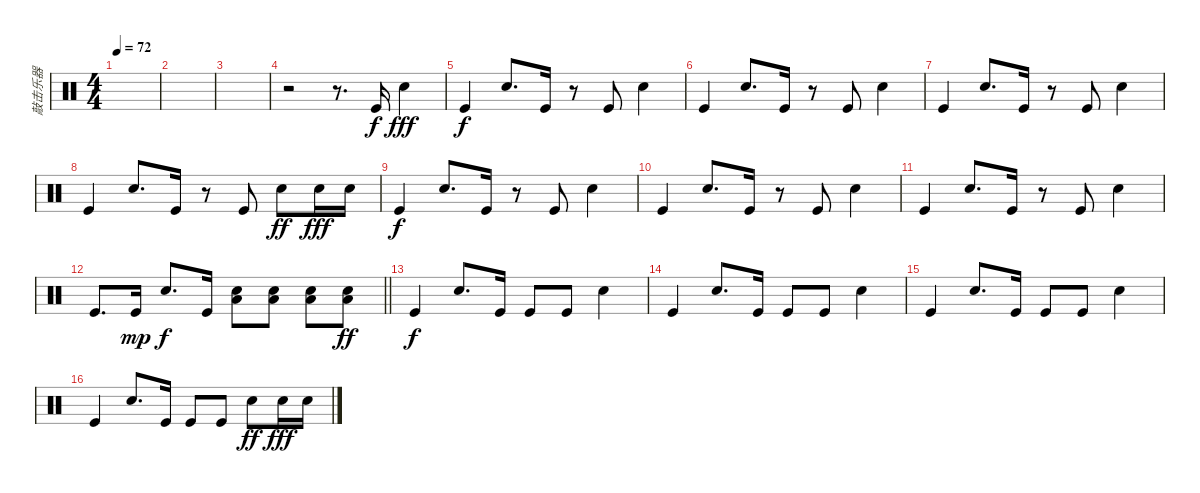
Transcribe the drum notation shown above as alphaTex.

\track ("敲击乐器" "敲击乐器") {instrument percussion}
\staff {score}
\articulation defaults
\ts (4 4)
\tempo 72
\clef neutral
\ks c
|
|
|
r.2 r.8{d} "Kick (hit)".16 "Snare (hit) 2".4{dy fff} |
"Kick (hit)".4{dy f} "Snare (hit) 2".8{d} "Kick (hit)".16 r.8 "Kick (hit)".8 "Snare (hit) 2".4 |
"Kick (hit)".4 "Snare (hit) 2".8{d} "Kick (hit)".16 r.8 "Kick (hit)".8 "Snare (hit) 2".4 |
"Kick (hit)".4 "Snare (hit) 2".8{d} "Kick (hit)".16 r.8 "Kick (hit)".8 "Snare (hit) 2".4 |
"Kick (hit)".4 "Snare (hit) 2".8{d} "Kick (hit)".16 r.8 "Kick (hit)".8 "Snare (hit) 2".8{dy ff} "Snare (hit) 2".16{dy fff} "Snare (hit) 2".16 |
"Kick (hit)".4{dy f} "Snare (hit) 2".8{d} "Kick (hit)".16 r.8 "Kick (hit)".8 "Snare (hit) 2".4 |
"Kick (hit)".4 "Snare (hit) 2".8{d} "Kick (hit)".16 r.8 "Kick (hit)".8 "Snare (hit) 2".4 |
"Kick (hit)".4 "Snare (hit) 2".8{d} "Kick (hit)".16 r.8 "Kick (hit)".8 "Snare (hit) 2".4 |
\barLineRight lightlight "Kick (hit)".8{d} "Kick (hit)".16{dy mp} "Snare (hit) 2".8{d dy f} "Kick (hit)".16
("Snare (hit) 2" "Low Tom (hit)").8 ("Snare (hit) 2" "Low Tom (hit)").8 ("Snare (hit) 2" "Low Tom (hit)").8 ("Snare (hit) 2" "Low Tom (hit)").8{dy ff} |
"Kick (hit)".4{dy f} "Snare (hit) 2".8{d} "Kick (hit)".16 "Kick (hit)".8 "Kick (hit)".8 "Snare (hit) 2".4 |
"Kick (hit)".4 "Snare (hit) 2".8{d} "Kick (hit)".16 "Kick (hit)".8 "Kick (hit)".8 "Snare (hit) 2".4 |
"Kick (hit)".4 "Snare (hit) 2".8{d} "Kick (hit)".16 "Kick (hit)".8 "Kick (hit)".8 "Snare (hit) 2".4 |
"Kick (hit)".4 "Snare (hit) 2".8{d} "Kick (hit)".16 "Kick (hit)".8 "Kick (hit)".8 "Snare (hit) 2".8{dy ff} "Snare (hit) 2".16{dy fff} "Snare (hit) 2".16
